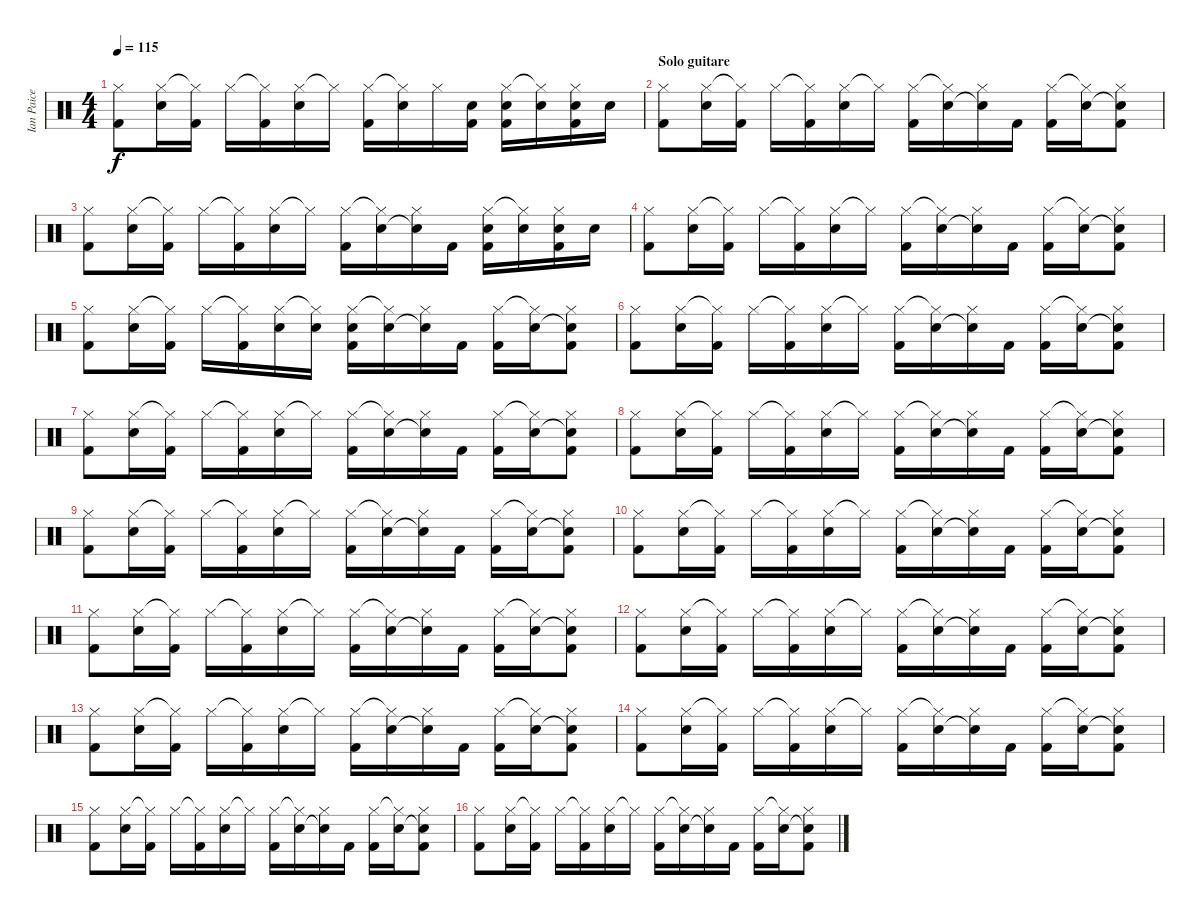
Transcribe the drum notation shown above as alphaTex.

\track ("Ian Paice" "Ian Paice") {instrument percussion}
\staff {score}
\articulation defaults
\ts (4 4)
\tempo 115
\clef neutral
\ks c
("Hi-Hat (closed)" "Kick (hit) 2").8{dy f} ("Hi-Hat (closed)" "Snare (hit) 2").16 ("Hi-Hat (closed)"{t} "Kick (hit) 2").16 "Hi-Hat (closed)".16 ("Hi-Hat (closed)"{t} "Kick (hit) 2").16 ("Hi-Hat (closed)" "Snare (hit) 2").16 "Hi-Hat (closed)"{t}.16 ("Hi-Hat (closed)" "Kick (hit) 2").16 ("Hi-Hat (closed)"{t} "Snare (hit) 2").16 "Hi-Hat (closed)".16 ("Snare (hit) 2" "Kick (hit) 2").16 ("Hi-Hat (closed)" "Snare (hit) 2" "Kick (hit) 2").16 ("Hi-Hat (closed)"{t} "Snare (hit) 2").16 ("Hi-Hat (closed)" "Snare (hit) 2" "Kick (hit) 2").16 "Snare (hit) 2".16 |
\section ("" "Solo guitare")
("Hi-Hat (closed)" "Kick (hit) 2").8 ("Hi-Hat (closed)" "Snare (hit) 2").16 ("Hi-Hat (closed)"{t} "Kick (hit) 2").16 "Hi-Hat (closed)".16 ("Hi-Hat (closed)"{t} "Kick (hit) 2").16 ("Hi-Hat (closed)" "Snare (hit) 2").16 "Hi-Hat (closed)"{t}.16 ("Hi-Hat (closed)" "Kick (hit) 2").16 ("Hi-Hat (closed)"{t} "Snare (hit) 2").16 ("Hi-Hat (closed)" "Snare (hit) 2"{t}).16 "Kick (hit) 2".16 ("Hi-Hat (closed)" "Kick (hit) 2").16 ("Hi-Hat (closed)"{t} "Snare (hit) 2").16 ("Hi-Hat (closed)" "Snare (hit) 2"{t} "Kick (hit) 2").8 |
("Hi-Hat (closed)" "Kick (hit) 2").8 ("Hi-Hat (closed)" "Snare (hit) 2").16 ("Hi-Hat (closed)"{t} "Kick (hit) 2").16 "Hi-Hat (closed)".16 ("Hi-Hat (closed)"{t} "Kick (hit) 2").16 ("Hi-Hat (closed)" "Snare (hit) 2").16 "Hi-Hat (closed)"{t}.16 ("Hi-Hat (closed)" "Kick (hit) 2").16 ("Hi-Hat (closed)"{t} "Snare (hit) 2").16 ("Hi-Hat (closed)" "Snare (hit) 2"{t}).16 "Kick (hit) 2".16 ("Hi-Hat (closed)" "Snare (hit) 2" "Kick (hit) 2").16 ("Hi-Hat (closed)"{t} "Snare (hit) 2").16 ("Hi-Hat (closed)" "Snare (hit) 2" "Kick (hit) 2").16 "Snare (hit) 2".16 |
("Hi-Hat (closed)" "Kick (hit) 2").8 ("Hi-Hat (closed)" "Snare (hit) 2").16 ("Hi-Hat (closed)"{t} "Kick (hit) 2").16 "Hi-Hat (closed)".16 ("Hi-Hat (closed)"{t} "Kick (hit) 2").16 ("Hi-Hat (closed)" "Snare (hit) 2").16 "Hi-Hat (closed)"{t}.16 ("Hi-Hat (closed)" "Kick (hit) 2").16 ("Hi-Hat (closed)"{t} "Snare (hit) 2").16 ("Hi-Hat (closed)" "Snare (hit) 2"{t}).16 "Kick (hit) 2".16 ("Hi-Hat (closed)" "Kick (hit) 2").16 ("Hi-Hat (closed)"{t} "Snare (hit) 2").16 ("Hi-Hat (closed)" "Snare (hit) 2"{t} "Kick (hit) 2").8 |
("Hi-Hat (closed)" "Kick (hit) 2").8 ("Hi-Hat (closed)" "Snare (hit) 2").16 ("Hi-Hat (closed)"{t} "Kick (hit) 2").16 "Hi-Hat (closed)".16 ("Hi-Hat (closed)"{t} "Kick (hit) 2").16 ("Hi-Hat (closed)" "Snare (hit) 2").16 ("Hi-Hat (closed)"{t} "Snare (hit) 2").16 ("Hi-Hat (closed)" "Snare (hit) 2" "Kick (hit) 2").16 ("Hi-Hat (closed)"{t} "Snare (hit) 2").16 ("Hi-Hat (closed)" "Snare (hit) 2"{t}).16 "Kick (hit) 2".16 ("Hi-Hat (closed)" "Kick (hit) 2").16 ("Hi-Hat (closed)"{t} "Snare (hit) 2").16 ("Hi-Hat (closed)" "Snare (hit) 2"{t} "Kick (hit) 2").8 |
("Hi-Hat (closed)" "Kick (hit) 2").8 ("Hi-Hat (closed)" "Snare (hit) 2").16 ("Hi-Hat (closed)"{t} "Kick (hit) 2").16 "Hi-Hat (closed)".16 ("Hi-Hat (closed)"{t} "Kick (hit) 2").16 ("Hi-Hat (closed)" "Snare (hit) 2").16 "Hi-Hat (closed)"{t}.16 ("Hi-Hat (closed)" "Kick (hit) 2").16 ("Hi-Hat (closed)"{t} "Snare (hit) 2").16 ("Hi-Hat (closed)" "Snare (hit) 2"{t}).16 "Kick (hit) 2".16 ("Hi-Hat (closed)" "Kick (hit) 2").16 ("Hi-Hat (closed)"{t} "Snare (hit) 2").16 ("Hi-Hat (closed)" "Snare (hit) 2"{t} "Kick (hit) 2").8 |
("Hi-Hat (closed)" "Kick (hit) 2").8 ("Hi-Hat (closed)" "Snare (hit) 2").16 ("Hi-Hat (closed)"{t} "Kick (hit) 2").16 "Hi-Hat (closed)".16 ("Hi-Hat (closed)"{t} "Kick (hit) 2").16 ("Hi-Hat (closed)" "Snare (hit) 2").16 "Hi-Hat (closed)"{t}.16 ("Hi-Hat (closed)" "Kick (hit) 2").16 ("Hi-Hat (closed)"{t} "Snare (hit) 2").16 ("Hi-Hat (closed)" "Snare (hit) 2"{t}).16 "Kick (hit) 2".16 ("Hi-Hat (closed)" "Kick (hit) 2").16 ("Hi-Hat (closed)"{t} "Snare (hit) 2").16 ("Hi-Hat (closed)" "Snare (hit) 2"{t} "Kick (hit) 2").8 |
("Hi-Hat (closed)" "Kick (hit) 2").8 ("Hi-Hat (closed)" "Snare (hit) 2").16 ("Hi-Hat (closed)"{t} "Kick (hit) 2").16 "Hi-Hat (closed)".16 ("Hi-Hat (closed)"{t} "Kick (hit) 2").16 ("Hi-Hat (closed)" "Snare (hit) 2").16 "Hi-Hat (closed)"{t}.16 ("Hi-Hat (closed)" "Kick (hit) 2").16 ("Hi-Hat (closed)"{t} "Snare (hit) 2").16 ("Hi-Hat (closed)" "Snare (hit) 2"{t}).16 "Kick (hit) 2".16 ("Hi-Hat (closed)" "Kick (hit) 2").16 ("Hi-Hat (closed)"{t} "Snare (hit) 2").16 ("Hi-Hat (closed)" "Snare (hit) 2"{t} "Kick (hit) 2").8 |
("Hi-Hat (closed)" "Kick (hit) 2").8 ("Hi-Hat (closed)" "Snare (hit) 2").16 ("Hi-Hat (closed)"{t} "Kick (hit) 2").16 "Hi-Hat (closed)".16 ("Hi-Hat (closed)"{t} "Kick (hit) 2").16 ("Hi-Hat (closed)" "Snare (hit) 2").16 "Hi-Hat (closed)"{t}.16 ("Hi-Hat (closed)" "Kick (hit) 2").16 ("Hi-Hat (closed)"{t} "Snare (hit) 2").16 ("Hi-Hat (closed)" "Snare (hit) 2"{t}).16 "Kick (hit) 2".16 ("Hi-Hat (closed)" "Kick (hit) 2").16 ("Hi-Hat (closed)"{t} "Snare (hit) 2").16 ("Hi-Hat (closed)" "Snare (hit) 2"{t} "Kick (hit) 2").8 |
("Hi-Hat (closed)" "Kick (hit) 2").8 ("Hi-Hat (closed)" "Snare (hit) 2").16 ("Hi-Hat (closed)"{t} "Kick (hit) 2").16 "Hi-Hat (closed)".16 ("Hi-Hat (closed)"{t} "Kick (hit) 2").16 ("Hi-Hat (closed)" "Snare (hit) 2").16 "Hi-Hat (closed)"{t}.16 ("Hi-Hat (closed)" "Kick (hit) 2").16 ("Hi-Hat (closed)"{t} "Snare (hit) 2").16 ("Hi-Hat (closed)" "Snare (hit) 2"{t}).16 "Kick (hit) 2".16 ("Hi-Hat (closed)" "Kick (hit) 2").16 ("Hi-Hat (closed)"{t} "Snare (hit) 2").16 ("Hi-Hat (closed)" "Snare (hit) 2"{t} "Kick (hit) 2").8 |
("Hi-Hat (closed)" "Kick (hit) 2").8 ("Hi-Hat (closed)" "Snare (hit) 2").16 ("Hi-Hat (closed)"{t} "Kick (hit) 2").16 "Hi-Hat (closed)".16 ("Hi-Hat (closed)"{t} "Kick (hit) 2").16 ("Hi-Hat (closed)" "Snare (hit) 2").16 "Hi-Hat (closed)"{t}.16 ("Hi-Hat (closed)" "Kick (hit) 2").16 ("Hi-Hat (closed)"{t} "Snare (hit) 2").16 ("Hi-Hat (closed)" "Snare (hit) 2"{t}).16 "Kick (hit) 2".16 ("Hi-Hat (closed)" "Kick (hit) 2").16 ("Hi-Hat (closed)"{t} "Snare (hit) 2").16 ("Hi-Hat (closed)" "Snare (hit) 2"{t} "Kick (hit) 2").8 |
("Hi-Hat (closed)" "Kick (hit) 2").8 ("Hi-Hat (closed)" "Snare (hit) 2").16 ("Hi-Hat (closed)"{t} "Kick (hit) 2").16 "Hi-Hat (closed)".16 ("Hi-Hat (closed)"{t} "Kick (hit) 2").16 ("Hi-Hat (closed)" "Snare (hit) 2").16 "Hi-Hat (closed)"{t}.16 ("Hi-Hat (closed)" "Kick (hit) 2").16 ("Hi-Hat (closed)"{t} "Snare (hit) 2").16 ("Hi-Hat (closed)" "Snare (hit) 2"{t}).16 "Kick (hit) 2".16 ("Hi-Hat (closed)" "Kick (hit) 2").16 ("Hi-Hat (closed)"{t} "Snare (hit) 2").16 ("Hi-Hat (closed)" "Snare (hit) 2"{t} "Kick (hit) 2").8 |
("Hi-Hat (closed)" "Kick (hit) 2").8 ("Hi-Hat (closed)" "Snare (hit) 2").16 ("Hi-Hat (closed)"{t} "Kick (hit) 2").16 "Hi-Hat (closed)".16 ("Hi-Hat (closed)"{t} "Kick (hit) 2").16 ("Hi-Hat (closed)" "Snare (hit) 2").16 "Hi-Hat (closed)"{t}.16 ("Hi-Hat (closed)" "Kick (hit) 2").16 ("Hi-Hat (closed)"{t} "Snare (hit) 2").16 ("Hi-Hat (closed)" "Snare (hit) 2"{t}).16 "Kick (hit) 2".16 ("Hi-Hat (closed)" "Kick (hit) 2").16 ("Hi-Hat (closed)"{t} "Snare (hit) 2").16 ("Hi-Hat (closed)" "Snare (hit) 2"{t} "Kick (hit) 2").8 |
("Hi-Hat (closed)" "Kick (hit) 2").8 ("Hi-Hat (closed)" "Snare (hit) 2").16 ("Hi-Hat (closed)"{t} "Kick (hit) 2").16 "Hi-Hat (closed)".16 ("Hi-Hat (closed)"{t} "Kick (hit) 2").16 ("Hi-Hat (closed)" "Snare (hit) 2").16 "Hi-Hat (closed)"{t}.16 ("Hi-Hat (closed)" "Kick (hit) 2").16 ("Hi-Hat (closed)"{t} "Snare (hit) 2").16 ("Hi-Hat (closed)" "Snare (hit) 2"{t}).16 "Kick (hit) 2".16 ("Hi-Hat (closed)" "Kick (hit) 2").16 ("Hi-Hat (closed)"{t} "Snare (hit) 2").16 ("Hi-Hat (closed)" "Snare (hit) 2"{t} "Kick (hit) 2").8 |
("Hi-Hat (closed)" "Kick (hit) 2").8 ("Hi-Hat (closed)" "Snare (hit) 2").16 ("Hi-Hat (closed)"{t} "Kick (hit) 2").16 "Hi-Hat (closed)".16 ("Hi-Hat (closed)"{t} "Kick (hit) 2").16 ("Hi-Hat (closed)" "Snare (hit) 2").16 "Hi-Hat (closed)"{t}.16 ("Hi-Hat (closed)" "Kick (hit) 2").16 ("Hi-Hat (closed)"{t} "Snare (hit) 2").16 ("Hi-Hat (closed)" "Snare (hit) 2"{t}).16 "Kick (hit) 2".16 ("Hi-Hat (closed)" "Kick (hit) 2").16 ("Hi-Hat (closed)"{t} "Snare (hit) 2").16 ("Hi-Hat (closed)" "Snare (hit) 2"{t} "Kick (hit) 2").8 |
("Hi-Hat (closed)" "Kick (hit) 2").8 ("Hi-Hat (closed)" "Snare (hit) 2").16 ("Hi-Hat (closed)"{t} "Kick (hit) 2").16 "Hi-Hat (closed)".16 ("Hi-Hat (closed)"{t} "Kick (hit) 2").16 ("Hi-Hat (closed)" "Snare (hit) 2").16 "Hi-Hat (closed)"{t}.16 ("Hi-Hat (closed)" "Kick (hit) 2").16 ("Hi-Hat (closed)"{t} "Snare (hit) 2").16 ("Hi-Hat (closed)" "Snare (hit) 2"{t}).16 "Kick (hit) 2".16 ("Hi-Hat (closed)" "Kick (hit) 2").16 ("Hi-Hat (closed)"{t} "Snare (hit) 2").16 ("Hi-Hat (closed)" "Snare (hit) 2"{t} "Kick (hit) 2").8
